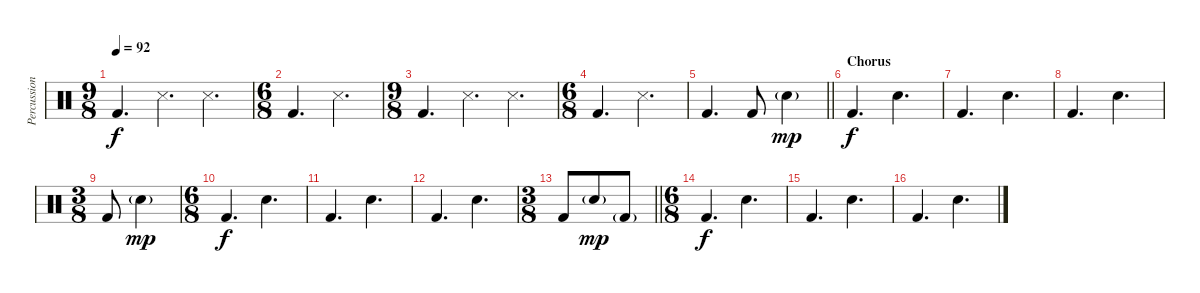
\track ("Percussion" "Percussion") {instrument percussion}
\staff {score}
\articulation defaults
\ts (9 8)
\tempo 92
\clef neutral
\ks c "Kick (hit) 2".4{d dy f} "Snare (side stick) 3".4{d} "Snare (side stick) 3".4{d}
|
\ts (6 8)
"Kick (hit) 2".4{d} "Snare (side stick) 3".4{d} |
\ts (9 8)
"Kick (hit) 2".4{d} "Snare (side stick) 3".4{d} "Snare (side stick) 3".4{d} |
\ts (6 8)
"Kick (hit) 2".4{d} "Snare (side stick) 3".4{d} |
\barLineRight lightlight "Kick (hit) 2".4{d} "Kick (hit) 2".8 "Snare (hit) 2"{g}.4{dy mp}
|
\section ("" "Chorus")
"Kick (hit) 2".4{d dy f} "Snare (hit) 2".4{d} |
"Kick (hit) 2".4{d} "Snare (hit) 2".4{d} |
"Kick (hit) 2".4{d} "Snare (hit) 2".4{d} |
\ts (3 8)
"Kick (hit) 2".8 "Snare (hit) 2"{g}.4{dy mp} |
\ts (6 8)
"Kick (hit) 2".4{d dy f} "Snare (hit) 2".4{d} |
"Kick (hit) 2".4{d} "Snare (hit) 2".4{d} |
"Kick (hit) 2".4{d} "Snare (hit) 2".4{d} |
\ts (3 8)
\barLineRight lightlight "Kick (hit) 2".8 "Snare (hit) 2"{g}.8{dy mp} "Kick (hit) 2"{g}.8
|
\ts (6 8)
"Kick (hit) 2".4{d dy f} "Snare (hit) 2".4{d} |
"Kick (hit) 2".4{d} "Snare (hit) 2".4{d} |
"Kick (hit) 2".4{d} "Snare (hit) 2".4{d}
